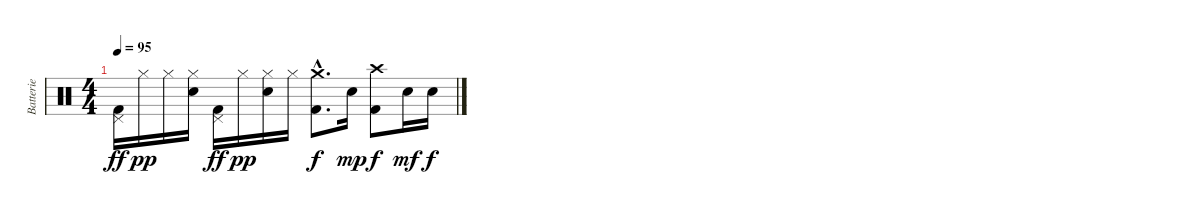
\track ("Batterie" "Batterie") {instrument percussion}
\staff {score}
\articulation defaults
\ts (4 4)
\tempo 95
\clef neutral
\ks c
("Pedal Hi-Hat (hit)" "Kick (hit) 2").16{dy ff} "Hi-Hat (closed)".16{dy pp} "Hi-Hat (closed)".16 ("Hi-Hat (closed)" "Electric Snare (hit)").16 ("Pedal Hi-Hat (hit)" "Kick (hit) 2").16{dy ff} "Hi-Hat (closed)".16{dy pp} ("Hi-Hat (closed)" "Electric Snare (hit)").16 "Hi-Hat (closed)".16 ("Crash medium (hit)"{hac} "Kick (hit) 2"{hac}).8{d dy f} "Electric Snare (hit)".16{dy mp} ("Crash high (hit)" "Kick (hit) 2").8{dy f} "Electric Snare (hit)".16{dy mf} "Electric Snare (hit)".16{dy f}
